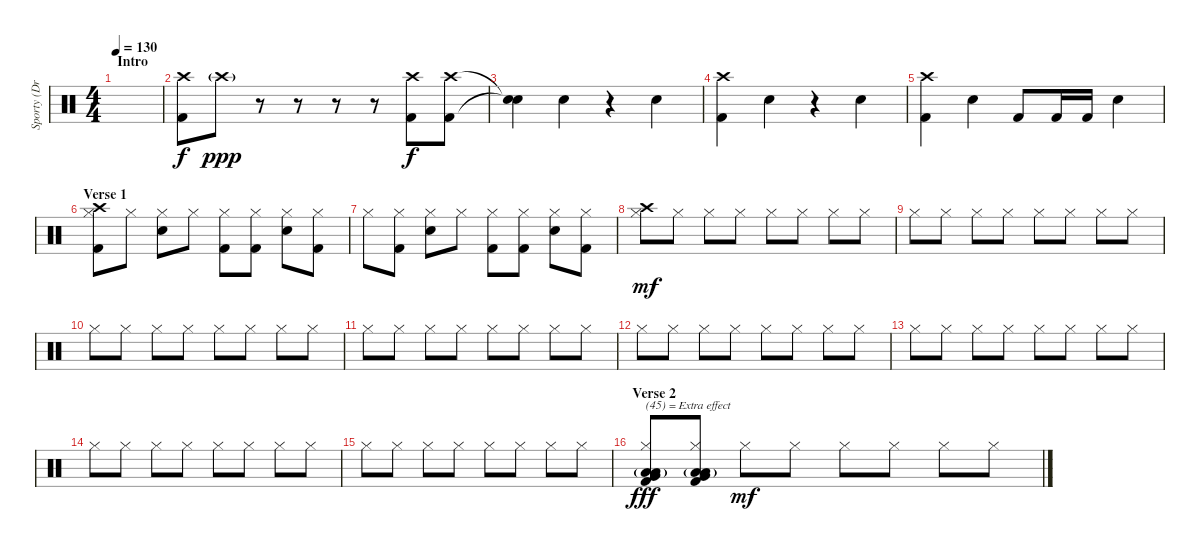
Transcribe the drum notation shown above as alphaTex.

\track ("Sporty (Drums)" "Sporty (Dr") {instrument percussion}
\staff {score}
\articulation defaults
\ts (4 4)
\section ("" "Intro")
\tempo 130
\clef neutral
\ks c
|
("Crash high (hit)" "Kick (hit) 2").8 "Crash high (hit)"{g}.8{dy ppp} r.8 r.8 r.8 r.8 ("Crash high (hit)" "Kick (hit) 2").8{dy f} ("Crash high (hit)" "Kick (hit) 2").8 |
("Snare (hit)"{t} "Snare (hit)"{t}).4 "Snare (hit) 2".4 r.4 "Snare (hit) 2".4 |
("Crash high (hit)" "Kick (hit) 2").4 "Snare (hit) 2".4 r.4 "Snare (hit) 2".4 |
("Crash high (hit)" "Kick (hit) 2").4 "Snare (hit) 2".4 "Kick (hit) 2".8 "Kick (hit) 2".16 "Kick (hit) 2".16 "Snare (hit) 2".4 |
\section ("" "Verse 1")
("Crash high (hit)" "Hi-Hat (closed)" "Kick (hit) 2").8 "Hi-Hat (closed)".8 ("Hi-Hat (closed)" "Snare (hit) 2").8 "Hi-Hat (closed)".8 ("Hi-Hat (closed)" "Kick (hit) 2").8 ("Hi-Hat (closed)" "Kick (hit) 2").8 ("Hi-Hat (closed)" "Snare (hit) 2").8 ("Hi-Hat (closed)" "Kick (hit) 2").8 |
"Hi-Hat (closed)".8 ("Hi-Hat (closed)" "Kick (hit) 2").8 ("Hi-Hat (closed)" "Snare (hit) 2").8 "Hi-Hat (closed)".8 ("Hi-Hat (closed)" "Kick (hit) 2").8 ("Hi-Hat (closed)" "Kick (hit) 2").8 ("Hi-Hat (closed)" "Snare (hit) 2").8 ("Hi-Hat (closed)" "Kick (hit) 2").8 |
("Crash high (hit)" "Hi-Hat (closed)").8{dy mf} "Hi-Hat (closed)".8 "Hi-Hat (closed)".8 "Hi-Hat (closed)".8 "Hi-Hat (closed)".8 "Hi-Hat (closed)".8 "Hi-Hat (closed)".8 "Hi-Hat (closed)".8 |
"Hi-Hat (closed)".8 "Hi-Hat (closed)".8 "Hi-Hat (closed)".8 "Hi-Hat (closed)".8 "Hi-Hat (closed)".8 "Hi-Hat (closed)".8 "Hi-Hat (closed)".8 "Hi-Hat (closed)".8 |
"Hi-Hat (closed)".8 "Hi-Hat (closed)".8 "Hi-Hat (closed)".8 "Hi-Hat (closed)".8 "Hi-Hat (closed)".8 "Hi-Hat (closed)".8 "Hi-Hat (closed)".8 "Hi-Hat (closed)".8 |
"Hi-Hat (closed)".8 "Hi-Hat (closed)".8 "Hi-Hat (closed)".8 "Hi-Hat (closed)".8 "Hi-Hat (closed)".8 "Hi-Hat (closed)".8 "Hi-Hat (closed)".8 "Hi-Hat (closed)".8 |
"Hi-Hat (closed)".8 "Hi-Hat (closed)".8 "Hi-Hat (closed)".8 "Hi-Hat (closed)".8 "Hi-Hat (closed)".8 "Hi-Hat (closed)".8 "Hi-Hat (closed)".8 "Hi-Hat (closed)".8 |
"Hi-Hat (closed)".8 "Hi-Hat (closed)".8 "Hi-Hat (closed)".8 "Hi-Hat (closed)".8 "Hi-Hat (closed)".8 "Hi-Hat (closed)".8 "Hi-Hat (closed)".8 "Hi-Hat (closed)".8 |
"Hi-Hat (closed)".8 "Hi-Hat (closed)".8 "Hi-Hat (closed)".8 "Hi-Hat (closed)".8 "Hi-Hat (closed)".8 "Hi-Hat (closed)".8 "Hi-Hat (closed)".8 "Hi-Hat (closed)".8 |
"Hi-Hat (closed)".8 "Hi-Hat (closed)".8 "Hi-Hat (closed)".8 "Hi-Hat (closed)".8 "Hi-Hat (closed)".8 "Hi-Hat (closed)".8 "Hi-Hat (closed)".8 "Hi-Hat (closed)".8 |
\section ("" "Verse 2")
("Hi-Hat (closed)" "Low Floor Tom (hit)" "Kick (hit) 2" "Very Low Tom (hit)" "Low Tom (hit)"{g}).8{txt "(45) = Extra effect" dy fff} ("Hi-Hat (closed)" "Low Floor Tom (hit)" "Kick (hit) 2" "Very Low Tom (hit)" "Low Tom (hit)"{g}).8 "Hi-Hat (closed)".8{dy mf} "Hi-Hat (closed)".8 "Hi-Hat (closed)".8 "Hi-Hat (closed)".8 "Hi-Hat (closed)".8 "Hi-Hat (closed)".8
